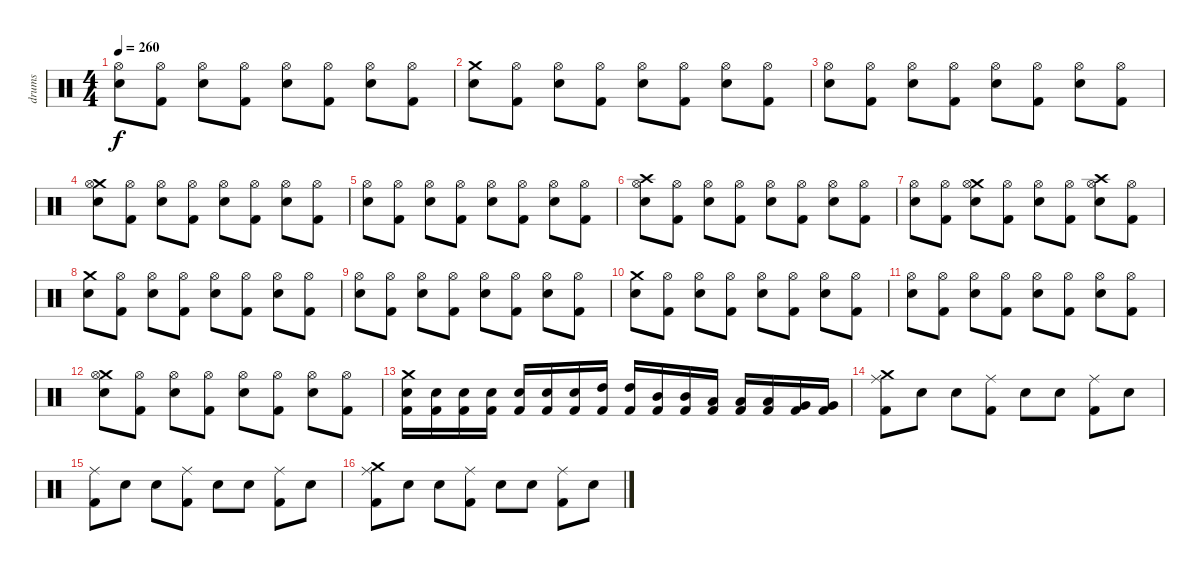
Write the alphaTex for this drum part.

\track ("drums" "drums") {instrument percussion}
\staff {score}
\articulation defaults
\ts (4 4)
\tempo 260
\clef neutral
\ks c
("Hi-Hat (open)" "Electric Snare (hit)").8{dy f} ("Hi-Hat (open)" "Kick (hit) 2").8 ("Hi-Hat (open)" "Electric Snare (hit)").8 ("Hi-Hat (open)" "Kick (hit) 2").8 ("Hi-Hat (open)" "Electric Snare (hit)").8 ("Hi-Hat (open)" "Kick (hit) 2").8 ("Hi-Hat (open)" "Electric Snare (hit)").8 ("Hi-Hat (open)" "Kick (hit) 2").8 |
("Crash medium (hit)" "Electric Snare (hit)").8 ("Hi-Hat (open)" "Kick (hit) 2").8 ("Hi-Hat (open)" "Electric Snare (hit)").8 ("Hi-Hat (open)" "Kick (hit) 2").8 ("Hi-Hat (open)" "Electric Snare (hit)").8 ("Hi-Hat (open)" "Kick (hit) 2").8 ("Hi-Hat (open)" "Electric Snare (hit)").8 ("Hi-Hat (open)" "Kick (hit) 2").8 |
("Hi-Hat (open)" "Electric Snare (hit)").8 ("Hi-Hat (open)" "Kick (hit) 2").8 ("Hi-Hat (open)" "Electric Snare (hit)").8 ("Hi-Hat (open)" "Kick (hit) 2").8 ("Hi-Hat (open)" "Electric Snare (hit)").8 ("Hi-Hat (open)" "Kick (hit) 2").8 ("Hi-Hat (open)" "Electric Snare (hit)").8 ("Hi-Hat (open)" "Kick (hit) 2").8 |
("Crash medium (hit)" "Hi-Hat (open)" "Electric Snare (hit)").8 ("Hi-Hat (open)" "Kick (hit) 2").8 ("Hi-Hat (open)" "Electric Snare (hit)").8 ("Hi-Hat (open)" "Kick (hit) 2").8 ("Hi-Hat (open)" "Electric Snare (hit)").8 ("Hi-Hat (open)" "Kick (hit) 2").8 ("Hi-Hat (open)" "Electric Snare (hit)").8 ("Hi-Hat (open)" "Kick (hit) 2").8 |
("Hi-Hat (open)" "Electric Snare (hit)").8 ("Hi-Hat (open)" "Kick (hit) 2").8 ("Hi-Hat (open)" "Electric Snare (hit)").8 ("Hi-Hat (open)" "Kick (hit) 2").8 ("Hi-Hat (open)" "Electric Snare (hit)").8 ("Hi-Hat (open)" "Kick (hit) 2").8 ("Hi-Hat (open)" "Electric Snare (hit)").8 ("Hi-Hat (open)" "Kick (hit) 2").8 |
("Crash high (hit)" "Hi-Hat (open)" "Electric Snare (hit)").8 ("Hi-Hat (open)" "Kick (hit) 2").8 ("Hi-Hat (open)" "Electric Snare (hit)").8 ("Hi-Hat (open)" "Kick (hit) 2").8 ("Hi-Hat (open)" "Electric Snare (hit)").8 ("Hi-Hat (open)" "Kick (hit) 2").8 ("Hi-Hat (open)" "Electric Snare (hit)").8 ("Hi-Hat (open)" "Kick (hit) 2").8 |
("Hi-Hat (open)" "Electric Snare (hit)").8 ("Hi-Hat (open)" "Kick (hit) 2").8 ("Crash medium (hit)" "Hi-Hat (open)" "Electric Snare (hit)").8 ("Hi-Hat (open)" "Kick (hit) 2").8 ("Hi-Hat (open)" "Electric Snare (hit)").8 ("Hi-Hat (open)" "Kick (hit) 2").8 ("Crash high (hit)" "Hi-Hat (open)" "Electric Snare (hit)").8 ("Hi-Hat (open)" "Kick (hit) 2").8 |
("Crash medium (hit)" "Electric Snare (hit)").8 ("Hi-Hat (open)" "Kick (hit) 2").8 ("Hi-Hat (open)" "Electric Snare (hit)").8 ("Hi-Hat (open)" "Kick (hit) 2").8 ("Hi-Hat (open)" "Electric Snare (hit)").8 ("Hi-Hat (open)" "Kick (hit) 2").8 ("Hi-Hat (open)" "Electric Snare (hit)").8 ("Hi-Hat (open)" "Kick (hit) 2").8 |
("Hi-Hat (open)" "Electric Snare (hit)").8 ("Hi-Hat (open)" "Kick (hit) 2").8 ("Hi-Hat (open)" "Electric Snare (hit)").8 ("Hi-Hat (open)" "Kick (hit) 2").8 ("Hi-Hat (open)" "Electric Snare (hit)").8 ("Hi-Hat (open)" "Kick (hit) 2").8 ("Hi-Hat (open)" "Electric Snare (hit)").8 ("Hi-Hat (open)" "Kick (hit) 2").8 |
("Crash medium (hit)" "Electric Snare (hit)").8 ("Hi-Hat (open)" "Kick (hit) 2").8 ("Hi-Hat (open)" "Electric Snare (hit)").8 ("Hi-Hat (open)" "Kick (hit) 2").8 ("Hi-Hat (open)" "Electric Snare (hit)").8 ("Hi-Hat (open)" "Kick (hit) 2").8 ("Hi-Hat (open)" "Electric Snare (hit)").8 ("Hi-Hat (open)" "Kick (hit) 2").8 |
("Hi-Hat (open)" "Electric Snare (hit)").8 ("Hi-Hat (open)" "Kick (hit) 2").8 ("Hi-Hat (open)" "Electric Snare (hit)").8 ("Hi-Hat (open)" "Kick (hit) 2").8 ("Hi-Hat (open)" "Electric Snare (hit)").8 ("Hi-Hat (open)" "Kick (hit) 2").8 ("Hi-Hat (open)" "Electric Snare (hit)").8 ("Hi-Hat (open)" "Kick (hit) 2").8 |
("Crash medium (hit)" "Hi-Hat (open)" "Electric Snare (hit)").8 ("Hi-Hat (open)" "Kick (hit) 2").8 ("Hi-Hat (open)" "Electric Snare (hit)").8 ("Hi-Hat (open)" "Kick (hit) 2").8 ("Hi-Hat (open)" "Electric Snare (hit)").8 ("Hi-Hat (open)" "Kick (hit) 2").8 ("Hi-Hat (open)" "Electric Snare (hit)").8 ("Hi-Hat (open)" "Kick (hit) 2").8 |
("Crash medium (hit)" "Electric Snare (hit)" "Kick (hit) 2").16 ("Electric Snare (hit)" "Kick (hit) 2").16 ("Electric Snare (hit)" "Kick (hit) 2").16 ("Electric Snare (hit)" "Kick (hit) 2").16 ("Electric Snare (hit)" "Kick (hit) 2").16 ("Electric Snare (hit)" "Kick (hit) 2").16 ("Electric Snare (hit)" "Kick (hit) 2").16 ("High Tom (hit)" "Kick (hit) 2").16 ("High Tom (hit)" "Kick (hit) 2").16 ("Mid Tom (hit)" "Kick (hit) 2").16 ("Mid Tom (hit)" "Kick (hit) 2").16 ("Low Tom (hit)" "Kick (hit) 2").16 ("Low Tom (hit)" "Kick (hit) 2").16 ("Low Tom (hit)" "Kick (hit) 2").16 ("Very Low Tom (hit)" "Kick (hit) 2").16 ("Very Low Tom (hit)" "Kick (hit) 2").16 |
("Crash medium (hit)" "Ride (middle)" "Kick (hit) 2").8 "Electric Snare (hit)".8 "Electric Snare (hit)".8 ("Ride (middle)" "Kick (hit) 2").8 "Electric Snare (hit)".8 "Electric Snare (hit)".8 ("Ride (middle)" "Kick (hit) 2").8 "Electric Snare (hit)".8 |
("Ride (middle)" "Kick (hit) 2").8 "Electric Snare (hit)".8 "Electric Snare (hit)".8 ("Ride (middle)" "Kick (hit) 2").8 "Electric Snare (hit)".8 "Electric Snare (hit)".8 ("Ride (middle)" "Kick (hit) 2").8 "Electric Snare (hit)".8 |
("Crash medium (hit)" "Ride (middle)" "Kick (hit) 2").8 "Electric Snare (hit)".8 "Electric Snare (hit)".8 ("Ride (middle)" "Kick (hit) 2").8 "Electric Snare (hit)".8 "Electric Snare (hit)".8 ("Ride (middle)" "Kick (hit) 2").8 "Electric Snare (hit)".8
